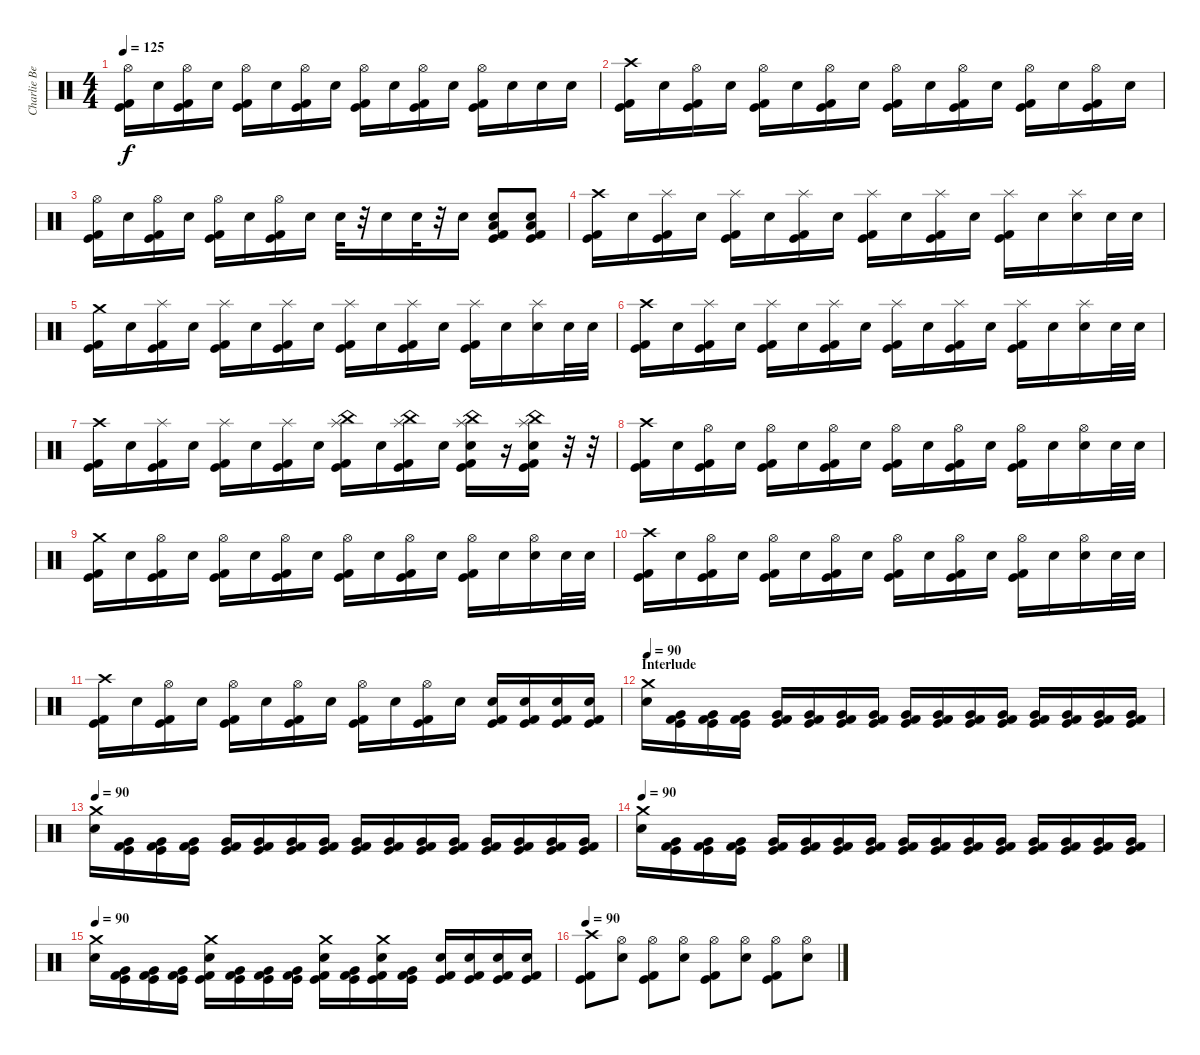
\track ("Charlie Benante" "Charlie Be") {instrument percussion}
\staff {score}
\articulation defaults
\ts (4 4)
\tempo 125
\clef neutral
\ks c
("Hi-Hat (open)" "Kick (hit) 2" "Kick (hit)").16{dy f} "Electric Snare (hit)".16 ("Hi-Hat (open)" "Kick (hit) 2" "Kick (hit)").16 "Electric Snare (hit)".16 ("Hi-Hat (open)" "Kick (hit) 2" "Kick (hit)").16 "Electric Snare (hit)".16 ("Hi-Hat (open)" "Kick (hit) 2" "Kick (hit)").16 "Electric Snare (hit)".16 ("Hi-Hat (open)" "Kick (hit) 2" "Kick (hit)").16 "Electric Snare (hit)".16 ("Hi-Hat (open)" "Kick (hit) 2" "Kick (hit)").16 "Electric Snare (hit)".16 ("Hi-Hat (open)" "Kick (hit) 2" "Kick (hit)").16 "Electric Snare (hit)".16 "Electric Snare (hit)".16 "Electric Snare (hit)".16 |
("Crash high (hit)" "Kick (hit) 2" "Kick (hit)").16 "Electric Snare (hit)".16 ("Hi-Hat (open)" "Kick (hit) 2" "Kick (hit)").16 "Electric Snare (hit)".16 ("Hi-Hat (open)" "Kick (hit) 2" "Kick (hit)").16 "Electric Snare (hit)".16 ("Hi-Hat (open)" "Kick (hit) 2" "Kick (hit)").16 "Electric Snare (hit)".16 ("Hi-Hat (open)" "Kick (hit) 2" "Kick (hit)").16 "Electric Snare (hit)".16 ("Hi-Hat (open)" "Kick (hit) 2" "Kick (hit)").16 "Electric Snare (hit)".16 ("Hi-Hat (open)" "Kick (hit) 2" "Kick (hit)").16 "Electric Snare (hit)".16 ("Hi-Hat (open)" "Kick (hit) 2" "Kick (hit)").16 "Electric Snare (hit)".16 |
("Hi-Hat (open)" "Kick (hit) 2" "Kick (hit)").16 "Electric Snare (hit)".16 ("Hi-Hat (open)" "Kick (hit) 2" "Kick (hit)").16 "Electric Snare (hit)".16 ("Hi-Hat (open)" "Kick (hit) 2" "Kick (hit)").16 "Electric Snare (hit)".16 ("Hi-Hat (open)" "Kick (hit) 2" "Kick (hit)").16 "Electric Snare (hit)".16 "Electric Snare (hit)".32 r.32 "Electric Snare (hit)".16 "Electric Snare (hit)".32 r.32 "Electric Snare (hit)".16 ("Low Floor Tom (hit)" "Electric Snare (hit)" "Kick (hit) 2" "Kick (hit)").8 ("Low Floor Tom (hit)" "Electric Snare (hit)" "Kick (hit) 2" "Kick (hit)").8 |
("Crash high (hit)" "Kick (hit) 2" "Kick (hit)").16 "Electric Snare (hit)".16 ("Splash (hit)" "Kick (hit) 2" "Kick (hit)").16 "Electric Snare (hit)".16 ("Splash (hit)" "Kick (hit) 2" "Kick (hit)").16 "Electric Snare (hit)".16 ("Splash (hit)" "Kick (hit) 2" "Kick (hit)").16 "Electric Snare (hit)".16 ("Splash (hit)" "Kick (hit) 2" "Kick (hit)").16 "Electric Snare (hit)".16 ("Splash (hit)" "Kick (hit) 2" "Kick (hit)").16 "Electric Snare (hit)".16 ("Splash (hit)" "Kick (hit) 2" "Kick (hit)").16 "Electric Snare (hit)".16 ("Splash (hit)" "Electric Snare (hit)").16 "Electric Snare (hit)".32 "Electric Snare (hit)".32 |
("Crash medium (hit)" "Kick (hit) 2" "Kick (hit)").16 "Electric Snare (hit)".16 ("Splash (hit)" "Kick (hit) 2" "Kick (hit)").16 "Electric Snare (hit)".16 ("Splash (hit)" "Kick (hit) 2" "Kick (hit)").16 "Electric Snare (hit)".16 ("Splash (hit)" "Kick (hit) 2" "Kick (hit)").16 "Electric Snare (hit)".16 ("Splash (hit)" "Kick (hit) 2" "Kick (hit)").16 "Electric Snare (hit)".16 ("Splash (hit)" "Kick (hit) 2" "Kick (hit)").16 "Electric Snare (hit)".16 ("Splash (hit)" "Kick (hit) 2" "Kick (hit)").16 "Electric Snare (hit)".16 ("Splash (hit)" "Electric Snare (hit)").16 "Electric Snare (hit)".32 "Electric Snare (hit)".32 |
("Crash high (hit)" "Kick (hit) 2" "Kick (hit)").16 "Electric Snare (hit)".16 ("Splash (hit)" "Kick (hit) 2" "Kick (hit)").16 "Electric Snare (hit)".16 ("Splash (hit)" "Kick (hit) 2" "Kick (hit)").16 "Electric Snare (hit)".16 ("Splash (hit)" "Kick (hit) 2" "Kick (hit)").16 "Electric Snare (hit)".16 ("Splash (hit)" "Kick (hit) 2" "Kick (hit)").16 "Electric Snare (hit)".16 ("Splash (hit)" "Kick (hit) 2" "Kick (hit)").16 "Electric Snare (hit)".16 ("Splash (hit)" "Kick (hit) 2" "Kick (hit)").16 "Electric Snare (hit)".16 ("Splash (hit)" "Electric Snare (hit)").16 "Electric Snare (hit)".32 "Electric Snare (hit)".32 |
("Crash high (hit)" "Kick (hit) 2" "Kick (hit)").16 "Electric Snare (hit)".16 ("Splash (hit)" "Kick (hit) 2" "Kick (hit)").16 "Electric Snare (hit)".16 ("Splash (hit)" "Kick (hit) 2" "Kick (hit)").16 "Electric Snare (hit)".16 ("Splash (hit)" "Kick (hit) 2" "Kick (hit)").16 "Electric Snare (hit)".16 ("China (hit)" "Splash (hit)" "Kick (hit) 2" "Kick (hit)").16 "Electric Snare (hit)".16 ("China (hit)" "Splash (hit)" "Kick (hit) 2" "Kick (hit)").16 "Electric Snare (hit)".16 ("China (hit)" "Splash (hit)" "Electric Snare (hit)" "Kick (hit) 2" "Kick (hit)").16 r.16 ("China (hit)" "Splash (hit)" "Electric Snare (hit)" "Kick (hit) 2" "Kick (hit)").16 r.32 r.32 |
("Crash high (hit)" "Kick (hit) 2" "Kick (hit)").16 "Electric Snare (hit)".16 ("Hi-Hat (open)" "Kick (hit) 2" "Kick (hit)").16 "Electric Snare (hit)".16 ("Hi-Hat (open)" "Kick (hit) 2" "Kick (hit)").16 "Electric Snare (hit)".16 ("Hi-Hat (open)" "Kick (hit) 2" "Kick (hit)").16 "Electric Snare (hit)".16 ("Hi-Hat (open)" "Kick (hit) 2" "Kick (hit)").16 "Electric Snare (hit)".16 ("Hi-Hat (open)" "Kick (hit) 2" "Kick (hit)").16 "Electric Snare (hit)".16 ("Hi-Hat (open)" "Kick (hit) 2" "Kick (hit)").16 "Electric Snare (hit)".16 ("Hi-Hat (open)" "Electric Snare (hit)").16 "Electric Snare (hit)".32 "Electric Snare (hit)".32 |
("Crash medium (hit)" "Kick (hit) 2" "Kick (hit)").16 "Electric Snare (hit)".16 ("Hi-Hat (open)" "Kick (hit) 2" "Kick (hit)").16 "Electric Snare (hit)".16 ("Hi-Hat (open)" "Kick (hit) 2" "Kick (hit)").16 "Electric Snare (hit)".16 ("Hi-Hat (open)" "Kick (hit) 2" "Kick (hit)").16 "Electric Snare (hit)".16 ("Hi-Hat (open)" "Kick (hit) 2" "Kick (hit)").16 "Electric Snare (hit)".16 ("Hi-Hat (open)" "Kick (hit) 2" "Kick (hit)").16 "Electric Snare (hit)".16 ("Hi-Hat (open)" "Kick (hit) 2" "Kick (hit)").16 "Electric Snare (hit)".16 ("Hi-Hat (open)" "Electric Snare (hit)").16 "Electric Snare (hit)".32 "Electric Snare (hit)".32 |
("Crash high (hit)" "Kick (hit) 2" "Kick (hit)").16 "Electric Snare (hit)".16 ("Hi-Hat (open)" "Kick (hit) 2" "Kick (hit)").16 "Electric Snare (hit)".16 ("Hi-Hat (open)" "Kick (hit) 2" "Kick (hit)").16 "Electric Snare (hit)".16 ("Hi-Hat (open)" "Kick (hit) 2" "Kick (hit)").16 "Electric Snare (hit)".16 ("Hi-Hat (open)" "Kick (hit) 2" "Kick (hit)").16 "Electric Snare (hit)".16 ("Hi-Hat (open)" "Kick (hit) 2" "Kick (hit)").16 "Electric Snare (hit)".16 ("Hi-Hat (open)" "Kick (hit) 2" "Kick (hit)").16 "Electric Snare (hit)".16 ("Hi-Hat (open)" "Electric Snare (hit)").16 "Electric Snare (hit)".32 "Electric Snare (hit)".32 |
("Crash high (hit)" "Kick (hit) 2" "Kick (hit)").16 "Electric Snare (hit)".16 ("Hi-Hat (open)" "Kick (hit) 2" "Kick (hit)").16 "Electric Snare (hit)".16 ("Hi-Hat (open)" "Kick (hit) 2" "Kick (hit)").16 "Electric Snare (hit)".16 ("Hi-Hat (open)" "Kick (hit) 2" "Kick (hit)").16 "Electric Snare (hit)".16 ("Hi-Hat (open)" "Kick (hit) 2" "Kick (hit)").16 "Electric Snare (hit)".16 ("Hi-Hat (open)" "Kick (hit) 2" "Kick (hit)").16 "Electric Snare (hit)".16 ("Electric Snare (hit)" "Kick (hit) 2" "Kick (hit)").16 ("Electric Snare (hit)" "Kick (hit) 2" "Kick (hit)").16 ("Electric Snare (hit)" "Kick (hit) 2" "Kick (hit)").16 ("Electric Snare (hit)" "Kick (hit) 2" "Kick (hit)").16 |
\section ("" "Interlude")
\tempo 90
("Crash medium (hit)" "Electric Snare (hit)").16 ("Very Low Tom (hit)" "Kick (hit)" "Kick (hit) 2").16 ("Very Low Tom (hit)" "Kick (hit)" "Kick (hit) 2").16 ("Very Low Tom (hit)" "Kick (hit)" "Kick (hit) 2").16 ("Very Low Tom (hit)" "Kick (hit)" "Kick (hit) 2").16 ("Very Low Tom (hit)" "Kick (hit)" "Kick (hit) 2").16 ("Very Low Tom (hit)" "Kick (hit)" "Kick (hit) 2").16 ("Very Low Tom (hit)" "Kick (hit)" "Kick (hit) 2").16 ("Very Low Tom (hit)" "Kick (hit)" "Kick (hit) 2").16 ("Very Low Tom (hit)" "Kick (hit)" "Kick (hit) 2").16 ("Very Low Tom (hit)" "Kick (hit)" "Kick (hit) 2").16 ("Very Low Tom (hit)" "Kick (hit)" "Kick (hit) 2").16 ("Very Low Tom (hit)" "Kick (hit)" "Kick (hit) 2").16 ("Very Low Tom (hit)" "Kick (hit)" "Kick (hit) 2").16 ("Very Low Tom (hit)" "Kick (hit)" "Kick (hit) 2").16 ("Very Low Tom (hit)" "Kick (hit)" "Kick (hit) 2").16 |
\tempo 90
("Crash medium (hit)" "Electric Snare (hit)").16 ("Very Low Tom (hit)" "Kick (hit)" "Kick (hit) 2").16 ("Very Low Tom (hit)" "Kick (hit)" "Kick (hit) 2").16 ("Very Low Tom (hit)" "Kick (hit)" "Kick (hit) 2").16 ("Very Low Tom (hit)" "Kick (hit)" "Kick (hit) 2").16 ("Very Low Tom (hit)" "Kick (hit)" "Kick (hit) 2").16 ("Very Low Tom (hit)" "Kick (hit)" "Kick (hit) 2").16 ("Very Low Tom (hit)" "Kick (hit)" "Kick (hit) 2").16 ("Very Low Tom (hit)" "Kick (hit)" "Kick (hit) 2").16 ("Very Low Tom (hit)" "Kick (hit)" "Kick (hit) 2").16 ("Very Low Tom (hit)" "Kick (hit)" "Kick (hit) 2").16 ("Very Low Tom (hit)" "Kick (hit)" "Kick (hit) 2").16 ("Very Low Tom (hit)" "Kick (hit)" "Kick (hit) 2").16 ("Very Low Tom (hit)" "Kick (hit)" "Kick (hit) 2").16 ("Very Low Tom (hit)" "Kick (hit)" "Kick (hit) 2").16 ("Very Low Tom (hit)" "Kick (hit)" "Kick (hit) 2").16 |
\tempo 90
("Crash medium (hit)" "Electric Snare (hit)").16 ("Very Low Tom (hit)" "Kick (hit)" "Kick (hit) 2").16 ("Very Low Tom (hit)" "Kick (hit)" "Kick (hit) 2").16 ("Very Low Tom (hit)" "Kick (hit)" "Kick (hit) 2").16 ("Very Low Tom (hit)" "Kick (hit)" "Kick (hit) 2").16 ("Very Low Tom (hit)" "Kick (hit)" "Kick (hit) 2").16 ("Very Low Tom (hit)" "Kick (hit)" "Kick (hit) 2").16 ("Very Low Tom (hit)" "Kick (hit)" "Kick (hit) 2").16 ("Very Low Tom (hit)" "Kick (hit)" "Kick (hit) 2").16 ("Very Low Tom (hit)" "Kick (hit)" "Kick (hit) 2").16 ("Very Low Tom (hit)" "Kick (hit)" "Kick (hit) 2").16 ("Very Low Tom (hit)" "Kick (hit)" "Kick (hit) 2").16 ("Very Low Tom (hit)" "Kick (hit)" "Kick (hit) 2").16 ("Very Low Tom (hit)" "Kick (hit)" "Kick (hit) 2").16 ("Very Low Tom (hit)" "Kick (hit)" "Kick (hit) 2").16 ("Very Low Tom (hit)" "Kick (hit)" "Kick (hit) 2").16 |
\tempo 90
("Crash medium (hit)" "Electric Snare (hit)").16 ("Very Low Tom (hit)" "Kick (hit)" "Kick (hit) 2").16 ("Very Low Tom (hit)" "Kick (hit)" "Kick (hit) 2").16 ("Very Low Tom (hit)" "Kick (hit)" "Kick (hit) 2").16 ("Crash medium (hit)" "Electric Snare (hit)" "Kick (hit)" "Kick (hit) 2").16 ("Very Low Tom (hit)" "Kick (hit)" "Kick (hit) 2").16 ("Very Low Tom (hit)" "Kick (hit)" "Kick (hit) 2").16 ("Very Low Tom (hit)" "Kick (hit)" "Kick (hit) 2").16 ("Crash medium (hit)" "Electric Snare (hit)" "Kick (hit)" "Kick (hit) 2").16 ("Very Low Tom (hit)" "Kick (hit)" "Kick (hit) 2").16 ("Crash medium (hit)" "Electric Snare (hit)" "Kick (hit)" "Kick (hit) 2").16 ("Very Low Tom (hit)" "Kick (hit)" "Kick (hit) 2").16 ("Electric Snare (hit)" "Kick (hit)" "Kick (hit) 2").16 ("Electric Snare (hit)" "Kick (hit)" "Kick (hit) 2").16 ("Electric Snare (hit)" "Kick (hit)" "Kick (hit) 2").16 ("Electric Snare (hit)" "Kick (hit)" "Kick (hit) 2").16 |
\tempo 90
("Crash high (hit)" "Kick (hit) 2" "Kick (hit)").8 ("Hi-Hat (open)" "Electric Snare (hit)").8 ("Hi-Hat (open)" "Kick (hit) 2" "Kick (hit)").8 ("Hi-Hat (open)" "Electric Snare (hit)").8 ("Hi-Hat (open)" "Kick (hit) 2" "Kick (hit)").8 ("Hi-Hat (open)" "Electric Snare (hit)").8 ("Hi-Hat (open)" "Kick (hit) 2" "Kick (hit)").8 ("Hi-Hat (open)" "Electric Snare (hit)").8
